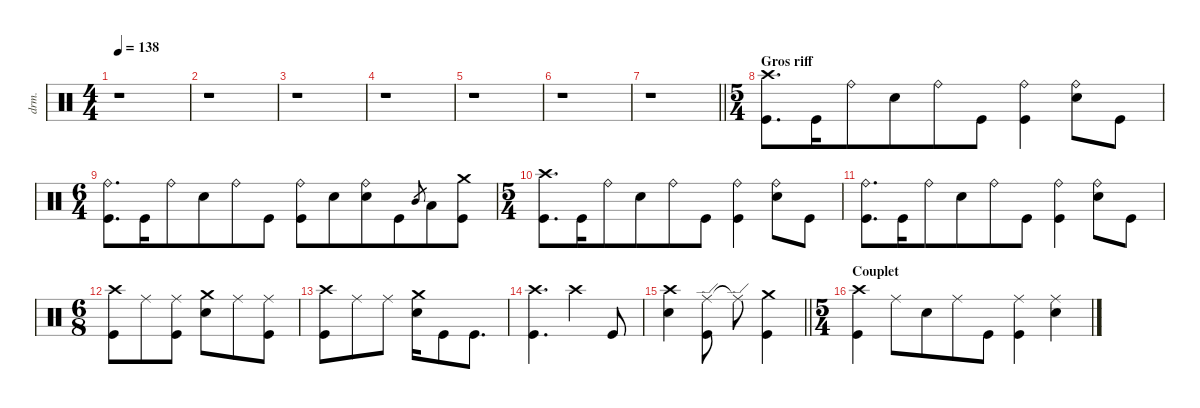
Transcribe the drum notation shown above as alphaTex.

\defaultSystemsLayout 4
\hideDynamics
\bracketExtendMode nobrackets
\track ("Percussions" "drm.") {instrument percussion}
\staff {score}
\articulation defaults
\ts (4 4)
\tempo 138
\clef neutral
\ks aminor
r.1{dy f beam Down} |
r.1{beam Down} |
r.1{beam Down} |
r.1{beam Down} |
r.1{beam Down} |
r.1{beam Down} |
\barLineRight lightlight
r.1{beam Down} |
\ts (5 4)
\beaming (8 6 4)
\section ("" "Gros riff")
("Crash high (hit)" "Kick (hit)").8{d beam Down} "Kick (hit)".16{beam Down} "Ride (bell)".8{beam Down} "Snare (hit) 2".8{beam Down} "Ride (bell)".8{beam Down} "Kick (hit)".8{beam Down} ("Kick (hit)" "Ride (bell)").4{beam Down} ("Ride (bell)" "Snare (hit) 2").8{beam Down} "Kick (hit)".8{beam Down} |
\ts (6 4)
\beaming (8 6 6)
("Ride (bell)" "Kick (hit)").8{d beam Down} "Kick (hit)".16{beam Down} "Ride (bell)".8{beam Down} "Snare (hit) 2".8{beam Down} "Ride (bell)".8{beam Down} "Kick (hit)".8{beam Down} ("Kick (hit)" "Ride (bell)").8{beam Down} "Snare (hit) 2".8{beam Down} ("Ride (bell)" "Snare (hit) 2").8{beam Down} "Kick (hit)".8{beam Down} "Mid Tom (hit)".8{gr beam Up} "Low Tom (hit)".8{beam Down} ("Crash medium (hit)" "Kick (hit)").8{beam Down} |
\ts (5 4)
\beaming (8 6 4)
("Crash high (hit)" "Kick (hit)").8{d beam Down} "Kick (hit)".16{beam Down} "Ride (bell)".8{beam Down} "Snare (hit) 2".8{beam Down} "Ride (bell)".8{beam Down} "Kick (hit)".8{beam Down} ("Kick (hit)" "Ride (bell)").4{beam Down} ("Ride (bell)" "Snare (hit) 2").8{beam Down} "Kick (hit)".8{beam Down} |
("Ride (bell)" "Kick (hit)").8{d beam Down} "Kick (hit)".16{beam Down} "Ride (bell)".8{beam Down} "Snare (hit) 2".8{beam Down} "Ride (bell)".8{beam Down} "Kick (hit)".8{beam Down} ("Kick (hit)" "Ride (bell)").4{beam Down} ("Ride (bell)" "Snare (hit) 2").8{beam Down} "Kick (hit)".8{beam Down} |
\ts (6 8)
\beaming (8 3 3)
("Crash high (hit)" "Kick (hit)").8{beam Down} "Ride (middle)".8{beam Down} ("Ride (middle)" "Kick (hit)").8{beam Down} ("Crash medium (hit)" "Snare (hit) 2").8{beam Down} "Ride (middle)".8{beam Down} ("Ride (middle)" "Kick (hit)").8{beam Down} |
("Crash high (hit)" "Kick (hit)").8{beam Down} "Ride (middle)".8{beam Down} "Ride (middle)".8{beam Down} ("Crash medium (hit)" "Snare (hit) 2").16{beam Down} "Kick (hit)".8{beam Down} "Kick (hit)".8{d beam Down} |
("Crash high (hit)" "Kick (hit)").4{d beam Down} "Crash high (hit)".4{beam Down} "Kick (hit)".8{beam Up} |
\barLineRight lightlight
("Crash high (hit)" "Snare (hit) 2").4{beam Down} ("Ride (edge)" "Kick (hit)").8{beam Down} "Ride (edge)"{t}.8{beam Down} ("Crash medium (hit)" "Kick (hit)").4{beam Down} |
\ts (5 4)
\beaming (8 6 4)
\section ("" "Couplet")
("Crash high (hit)" "Kick (hit)").4{beam Down} "Ride (middle)".8{beam Down} "Snare (hit) 2".8{beam Down} "Ride (middle)".8{beam Down} "Kick (hit)".8{beam Down} ("Ride (middle)" "Kick (hit)").4{beam Down} ("Ride (middle)" "Snare (hit) 2").4{beam Down}
